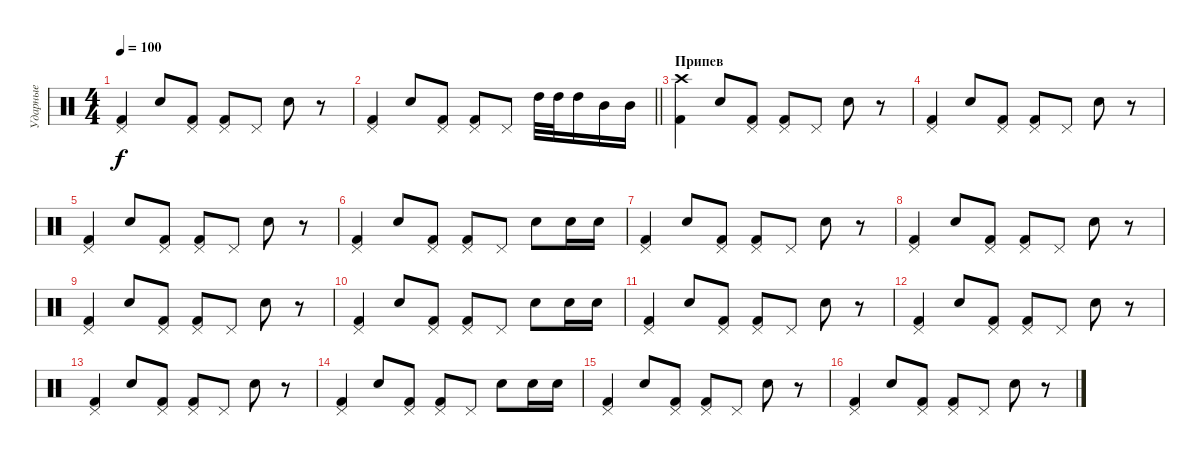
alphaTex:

\track ("Ударные" "Ударные") {instrument percussion}
\staff {score}
\articulation defaults
\ts (4 4)
\tempo 100
\clef neutral
\ks c
("Pedal Hi-Hat (hit)" "Kick (hit) 2").4{dy f} "Snare (hit) 2".8 ("Pedal Hi-Hat (hit)" "Kick (hit) 2").8 ("Pedal Hi-Hat (hit)" "Kick (hit) 2").8 "Pedal Hi-Hat (hit)".8 "Snare (hit) 2".8 r.8 |
\barLineRight lightlight
("Pedal Hi-Hat (hit)" "Kick (hit) 2").4 "Snare (hit) 2".8 ("Pedal Hi-Hat (hit)" "Kick (hit) 2").8 ("Pedal Hi-Hat (hit)" "Kick (hit) 2").8 "Pedal Hi-Hat (hit)".8 "High Tom (hit)".32 "High Tom (hit)".32 "High Tom (hit)".16 "Mid Tom (hit)".16 "Mid Tom (hit)".16 |
\section ("" "Припев")
("Crash high (hit)" "Kick (hit) 2").4 "Snare (hit) 2".8 ("Pedal Hi-Hat (hit)" "Kick (hit) 2").8 ("Pedal Hi-Hat (hit)" "Kick (hit) 2").8 "Pedal Hi-Hat (hit)".8 "Snare (hit) 2".8 r.8 |
("Pedal Hi-Hat (hit)" "Kick (hit) 2").4 "Snare (hit) 2".8 ("Pedal Hi-Hat (hit)" "Kick (hit) 2").8 ("Pedal Hi-Hat (hit)" "Kick (hit) 2").8 "Pedal Hi-Hat (hit)".8 "Snare (hit) 2".8 r.8 |
("Pedal Hi-Hat (hit)" "Kick (hit) 2").4 "Snare (hit) 2".8 ("Pedal Hi-Hat (hit)" "Kick (hit) 2").8 ("Pedal Hi-Hat (hit)" "Kick (hit) 2").8 "Pedal Hi-Hat (hit)".8 "Snare (hit) 2".8 r.8 |
("Pedal Hi-Hat (hit)" "Kick (hit) 2").4 "Snare (hit) 2".8 ("Pedal Hi-Hat (hit)" "Kick (hit) 2").8 ("Pedal Hi-Hat (hit)" "Kick (hit) 2").8 "Pedal Hi-Hat (hit)".8 "Snare (hit) 2".8 "Snare (hit) 2".16 "Snare (hit) 2".16 |
("Pedal Hi-Hat (hit)" "Kick (hit) 2").4 "Snare (hit) 2".8 ("Pedal Hi-Hat (hit)" "Kick (hit) 2").8 ("Pedal Hi-Hat (hit)" "Kick (hit) 2").8 "Pedal Hi-Hat (hit)".8 "Snare (hit) 2".8 r.8 |
("Pedal Hi-Hat (hit)" "Kick (hit) 2").4 "Snare (hit) 2".8 ("Pedal Hi-Hat (hit)" "Kick (hit) 2").8 ("Pedal Hi-Hat (hit)" "Kick (hit) 2").8 "Pedal Hi-Hat (hit)".8 "Snare (hit) 2".8 r.8 |
("Pedal Hi-Hat (hit)" "Kick (hit) 2").4 "Snare (hit) 2".8 ("Pedal Hi-Hat (hit)" "Kick (hit) 2").8 ("Pedal Hi-Hat (hit)" "Kick (hit) 2").8 "Pedal Hi-Hat (hit)".8 "Snare (hit) 2".8 r.8 |
("Pedal Hi-Hat (hit)" "Kick (hit) 2").4 "Snare (hit) 2".8 ("Pedal Hi-Hat (hit)" "Kick (hit) 2").8 ("Pedal Hi-Hat (hit)" "Kick (hit) 2").8 "Pedal Hi-Hat (hit)".8 "Snare (hit) 2".8 "Snare (hit) 2".16 "Snare (hit) 2".16 |
("Pedal Hi-Hat (hit)" "Kick (hit) 2").4 "Snare (hit) 2".8 ("Pedal Hi-Hat (hit)" "Kick (hit) 2").8 ("Pedal Hi-Hat (hit)" "Kick (hit) 2").8 "Pedal Hi-Hat (hit)".8 "Snare (hit) 2".8 r.8 |
("Pedal Hi-Hat (hit)" "Kick (hit) 2").4 "Snare (hit) 2".8 ("Pedal Hi-Hat (hit)" "Kick (hit) 2").8 ("Pedal Hi-Hat (hit)" "Kick (hit) 2").8 "Pedal Hi-Hat (hit)".8 "Snare (hit) 2".8 r.8 |
("Pedal Hi-Hat (hit)" "Kick (hit) 2").4 "Snare (hit) 2".8 ("Pedal Hi-Hat (hit)" "Kick (hit) 2").8 ("Pedal Hi-Hat (hit)" "Kick (hit) 2").8 "Pedal Hi-Hat (hit)".8 "Snare (hit) 2".8 r.8 |
("Pedal Hi-Hat (hit)" "Kick (hit) 2").4 "Snare (hit) 2".8 ("Pedal Hi-Hat (hit)" "Kick (hit) 2").8 ("Pedal Hi-Hat (hit)" "Kick (hit) 2").8 "Pedal Hi-Hat (hit)".8 "Snare (hit) 2".8 "Snare (hit) 2".16 "Snare (hit) 2".16 |
("Pedal Hi-Hat (hit)" "Kick (hit) 2").4 "Snare (hit) 2".8 ("Pedal Hi-Hat (hit)" "Kick (hit) 2").8 ("Pedal Hi-Hat (hit)" "Kick (hit) 2").8 "Pedal Hi-Hat (hit)".8 "Snare (hit) 2".8 r.8 |
("Pedal Hi-Hat (hit)" "Kick (hit) 2").4 "Snare (hit) 2".8 ("Pedal Hi-Hat (hit)" "Kick (hit) 2").8 ("Pedal Hi-Hat (hit)" "Kick (hit) 2").8 "Pedal Hi-Hat (hit)".8 "Snare (hit) 2".8 r.8
